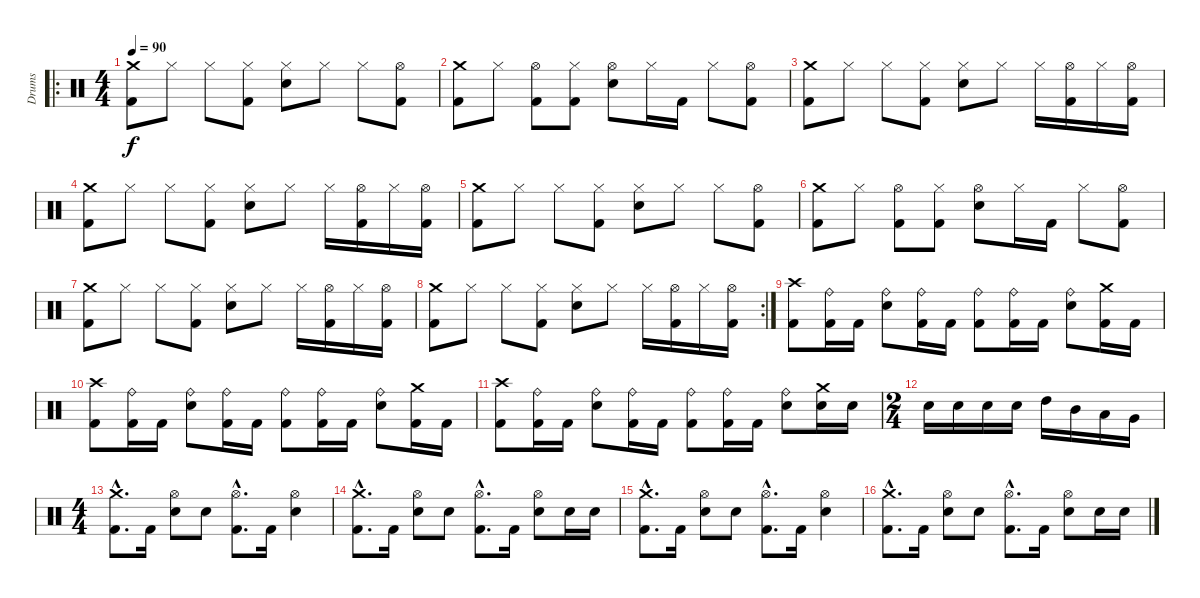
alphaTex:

\track ("Drums" "Drums") {instrument percussion}
\staff {score}
\articulation defaults
\ro
\ts (4 4)
\tempo 90
\clef neutral
\ks c
("Crash medium (hit)" "Kick (hit) 2").8{dy f} "Hi-Hat (closed)".8 "Hi-Hat (closed)".8 ("Hi-Hat (closed)" "Kick (hit) 2").8 ("Hi-Hat (closed)" "Snare (hit) 2").8 "Hi-Hat (closed)".8 "Hi-Hat (closed)".8 ("Hi-Hat (open)" "Kick (hit) 2").8 |
("Crash medium (hit)" "Kick (hit) 2").8 "Hi-Hat (closed)".8 ("Hi-Hat (open)" "Kick (hit) 2").8 ("Hi-Hat (closed)" "Kick (hit) 2").8 ("Hi-Hat (open)" "Snare (hit) 2").8 "Hi-Hat (closed)".16 "Kick (hit) 2".16 "Hi-Hat (closed)".8 ("Hi-Hat (open)" "Kick (hit) 2").8 |
("Crash medium (hit)" "Kick (hit) 2").8 "Hi-Hat (closed)".8 "Hi-Hat (closed)".8 ("Hi-Hat (closed)" "Kick (hit) 2").8 ("Hi-Hat (closed)" "Snare (hit) 2").8 "Hi-Hat (closed)".8 "Hi-Hat (closed)".16 ("Hi-Hat (open)" "Kick (hit) 2").16 "Hi-Hat (closed)".16 ("Hi-Hat (open)" "Kick (hit) 2").16 |
("Crash medium (hit)" "Kick (hit) 2").8 "Hi-Hat (closed)".8 "Hi-Hat (closed)".8 ("Hi-Hat (closed)" "Kick (hit) 2").8 ("Hi-Hat (closed)" "Snare (hit) 2").8 "Hi-Hat (closed)".8 "Hi-Hat (closed)".16 ("Hi-Hat (open)" "Kick (hit) 2").16 "Hi-Hat (closed)".16 ("Hi-Hat (open)" "Kick (hit) 2").16 |
("Crash medium (hit)" "Kick (hit) 2").8 "Hi-Hat (closed)".8 "Hi-Hat (closed)".8 ("Hi-Hat (closed)" "Kick (hit) 2").8 ("Hi-Hat (closed)" "Snare (hit) 2").8 "Hi-Hat (closed)".8 "Hi-Hat (closed)".8 ("Hi-Hat (open)" "Kick (hit) 2").8 |
("Crash medium (hit)" "Kick (hit) 2").8 "Hi-Hat (closed)".8 ("Hi-Hat (open)" "Kick (hit) 2").8 ("Hi-Hat (closed)" "Kick (hit) 2").8 ("Hi-Hat (open)" "Snare (hit) 2").8 "Hi-Hat (closed)".16 "Kick (hit) 2".16 "Hi-Hat (closed)".8 ("Hi-Hat (open)" "Kick (hit) 2").8 |
("Crash medium (hit)" "Kick (hit) 2").8 "Hi-Hat (closed)".8 "Hi-Hat (closed)".8 ("Hi-Hat (closed)" "Kick (hit) 2").8 ("Hi-Hat (closed)" "Snare (hit) 2").8 "Hi-Hat (closed)".8 "Hi-Hat (closed)".16 ("Hi-Hat (open)" "Kick (hit) 2").16 "Hi-Hat (closed)".16 ("Hi-Hat (open)" "Kick (hit) 2").16 |
\rc 2
("Crash medium (hit)" "Kick (hit) 2").8 "Hi-Hat (closed)".8 "Hi-Hat (closed)".8 ("Hi-Hat (closed)" "Kick (hit) 2").8 ("Hi-Hat (closed)" "Snare (hit) 2").8 "Hi-Hat (closed)".8 "Hi-Hat (closed)".16 ("Hi-Hat (open)" "Kick (hit) 2").16 "Hi-Hat (closed)".16 ("Hi-Hat (open)" "Kick (hit) 2").16 |
("Crash high (hit)" "Kick (hit) 2").8 ("Ride (bell)" "Kick (hit) 2").16 "Kick (hit) 2".16 ("Ride (bell)" "Snare (hit) 2").8 ("Ride (bell)" "Kick (hit) 2").16 "Kick (hit) 2".16 ("Ride (bell)" "Kick (hit) 2").8 ("Ride (bell)" "Kick (hit) 2").16 "Kick (hit) 2".16 ("Ride (bell)" "Snare (hit) 2").8 ("Crash medium (hit)" "Kick (hit) 2").16 "Kick (hit) 2".16 |
("Crash high (hit)" "Kick (hit) 2").8 ("Ride (bell)" "Kick (hit) 2").16 "Kick (hit) 2".16 ("Ride (bell)" "Snare (hit) 2").8 ("Ride (bell)" "Kick (hit) 2").16 "Kick (hit) 2".16 ("Ride (bell)" "Kick (hit) 2").8 ("Ride (bell)" "Kick (hit) 2").16 "Kick (hit) 2".16 ("Ride (bell)" "Snare (hit) 2").8 ("Crash medium (hit)" "Kick (hit) 2").16 "Kick (hit) 2".16 |
("Crash high (hit)" "Kick (hit) 2").8 ("Ride (bell)" "Kick (hit) 2").16 "Kick (hit) 2".16 ("Ride (bell)" "Snare (hit) 2").8 ("Ride (bell)" "Kick (hit) 2").16 "Kick (hit) 2".16 ("Ride (bell)" "Kick (hit) 2").8 ("Ride (bell)" "Kick (hit) 2").16 "Kick (hit) 2".16 ("Ride (bell)" "Snare (hit) 2").8 ("Crash medium (hit)" "Snare (hit) 2").16 "Snare (hit) 2".16 |
\ts (2 4)
"Snare (hit) 2".16 "Snare (hit) 2".16 "Snare (hit) 2".16 "Snare (hit) 2".16 "High Tom (hit)".16 "Mid Tom (hit)".16 "Low Tom (hit)".16 "Very Low Tom (hit)".16 |
\ts (4 4)
("Crash medium (hit)"{hac} "Kick (hit) 2"{hac}).8{d} "Kick (hit) 2".16 ("Hi-Hat (open)" "Snare (hit) 2").8 "Snare (hit) 2".8 ("Hi-Hat (open)"{hac} "Kick (hit) 2"{hac}).8{d} "Kick (hit) 2".16 ("Hi-Hat (open)" "Snare (hit) 2").4 |
("Crash medium (hit)"{hac} "Kick (hit) 2"{hac}).8{d} "Kick (hit) 2".16 ("Hi-Hat (open)" "Snare (hit) 2").8 "Snare (hit) 2".8 ("Hi-Hat (open)"{hac} "Kick (hit) 2"{hac}).8{d} "Kick (hit) 2".16 ("Hi-Hat (open)" "Snare (hit) 2").8 "Snare (hit) 2".16 "Snare (hit) 2".16 |
("Crash medium (hit)"{hac} "Kick (hit) 2"{hac}).8{d} "Kick (hit) 2".16 ("Hi-Hat (open)" "Snare (hit) 2").8 "Snare (hit) 2".8 ("Hi-Hat (open)"{hac} "Kick (hit) 2"{hac}).8{d} "Kick (hit) 2".16 ("Hi-Hat (open)" "Snare (hit) 2").4 |
("Crash medium (hit)"{hac} "Kick (hit) 2"{hac}).8{d} "Kick (hit) 2".16 ("Hi-Hat (open)" "Snare (hit) 2").8 "Snare (hit) 2".8 ("Hi-Hat (open)"{hac} "Kick (hit) 2"{hac}).8{d} "Kick (hit) 2".16 ("Hi-Hat (open)" "Snare (hit) 2").8 "Snare (hit) 2".16 "Snare (hit) 2".16
